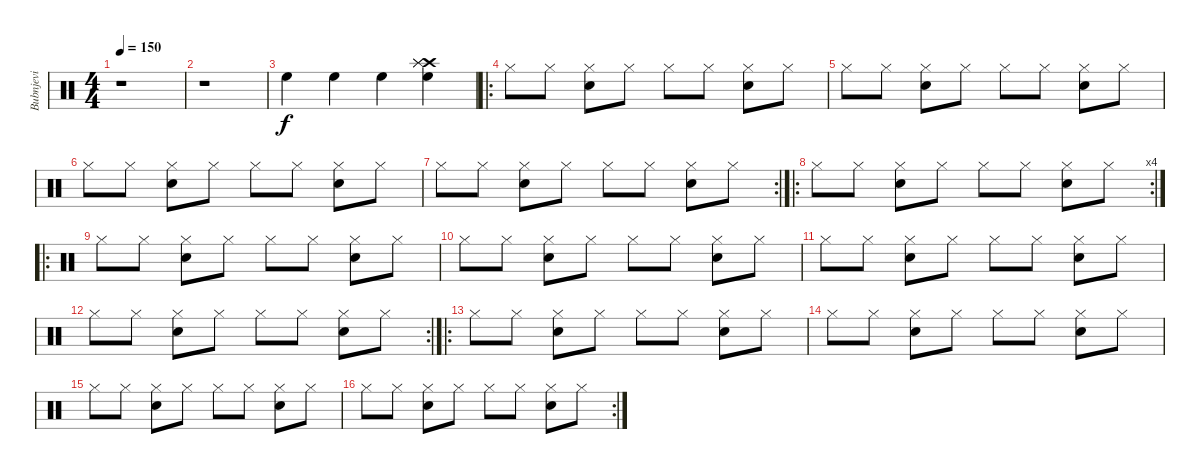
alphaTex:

\track ("Bubnjevi" "Bubnjevi") {instrument percussion}
\staff {score}
\articulation defaults
\ts (4 4)
\tempo 150
\clef neutral
\ks c
r.1{dy f} |
r.1 |
"High Floor Tom (hit)".4 "High Floor Tom (hit)".4 "High Floor Tom (hit)".4 ("Crash high (hit)" "Splash (hit)" "Splash (hit)" "High Floor Tom (hit)").4 |
\ro "Hi-Hat (closed)".8 "Hi-Hat (closed)".8
("Hi-Hat (closed)" "Snare (hit) 2").8 "Hi-Hat (closed)".8 "Hi-Hat (closed)".8 "Hi-Hat (closed)".8 ("Hi-Hat (closed)" "Snare (hit) 2").8 "Hi-Hat (closed)".8 |
"Hi-Hat (closed)".8 "Hi-Hat (closed)".8 ("Hi-Hat (closed)" "Snare (hit) 2").8 "Hi-Hat (closed)".8 "Hi-Hat (closed)".8 "Hi-Hat (closed)".8 ("Hi-Hat (closed)" "Snare (hit) 2").8 "Hi-Hat (closed)".8 |
"Hi-Hat (closed)".8 "Hi-Hat (closed)".8 ("Hi-Hat (closed)" "Snare (hit) 2").8 "Hi-Hat (closed)".8 "Hi-Hat (closed)".8 "Hi-Hat (closed)".8 ("Hi-Hat (closed)" "Snare (hit) 2").8 "Hi-Hat (closed)".8 |
\rc 2 "Hi-Hat (closed)".8 "Hi-Hat (closed)".8
("Hi-Hat (closed)" "Snare (hit) 2").8 "Hi-Hat (closed)".8 "Hi-Hat (closed)".8 "Hi-Hat (closed)".8 ("Hi-Hat (closed)" "Snare (hit) 2").8 "Hi-Hat (closed)".8 |
\ro
\rc 4 "Hi-Hat (closed)".8 "Hi-Hat (closed)".8
("Hi-Hat (closed)" "Snare (hit) 2").8 "Hi-Hat (closed)".8 "Hi-Hat (closed)".8 "Hi-Hat (closed)".8 ("Hi-Hat (closed)" "Snare (hit) 2").8 "Hi-Hat (closed)".8 |
\ro "Hi-Hat (closed)".8 "Hi-Hat (closed)".8
("Hi-Hat (closed)" "Snare (hit) 2").8 "Hi-Hat (closed)".8 "Hi-Hat (closed)".8 "Hi-Hat (closed)".8 ("Hi-Hat (closed)" "Snare (hit) 2").8 "Hi-Hat (closed)".8 |
"Hi-Hat (closed)".8 "Hi-Hat (closed)".8 ("Hi-Hat (closed)" "Snare (hit) 2").8 "Hi-Hat (closed)".8 "Hi-Hat (closed)".8 "Hi-Hat (closed)".8 ("Hi-Hat (closed)" "Snare (hit) 2").8 "Hi-Hat (closed)".8 |
"Hi-Hat (closed)".8 "Hi-Hat (closed)".8 ("Hi-Hat (closed)" "Snare (hit) 2").8 "Hi-Hat (closed)".8 "Hi-Hat (closed)".8 "Hi-Hat (closed)".8 ("Hi-Hat (closed)" "Snare (hit) 2").8 "Hi-Hat (closed)".8 |
\rc 2 "Hi-Hat (closed)".8 "Hi-Hat (closed)".8
("Hi-Hat (closed)" "Snare (hit) 2").8 "Hi-Hat (closed)".8 "Hi-Hat (closed)".8 "Hi-Hat (closed)".8 ("Hi-Hat (closed)" "Snare (hit) 2").8 "Hi-Hat (closed)".8 |
\ro "Hi-Hat (closed)".8 "Hi-Hat (closed)".8
("Hi-Hat (closed)" "Snare (hit) 2").8 "Hi-Hat (closed)".8 "Hi-Hat (closed)".8 "Hi-Hat (closed)".8 ("Hi-Hat (closed)" "Snare (hit) 2").8 "Hi-Hat (closed)".8 |
"Hi-Hat (closed)".8 "Hi-Hat (closed)".8 ("Hi-Hat (closed)" "Snare (hit) 2").8 "Hi-Hat (closed)".8 "Hi-Hat (closed)".8 "Hi-Hat (closed)".8 ("Hi-Hat (closed)" "Snare (hit) 2").8 "Hi-Hat (closed)".8 |
"Hi-Hat (closed)".8 "Hi-Hat (closed)".8 ("Hi-Hat (closed)" "Snare (hit) 2").8 "Hi-Hat (closed)".8 "Hi-Hat (closed)".8 "Hi-Hat (closed)".8 ("Hi-Hat (closed)" "Snare (hit) 2").8 "Hi-Hat (closed)".8 |
\rc 2 "Hi-Hat (closed)".8 "Hi-Hat (closed)".8
("Hi-Hat (closed)" "Snare (hit) 2").8 "Hi-Hat (closed)".8 "Hi-Hat (closed)".8 "Hi-Hat (closed)".8 ("Hi-Hat (closed)" "Snare (hit) 2").8 "Hi-Hat (closed)".8
